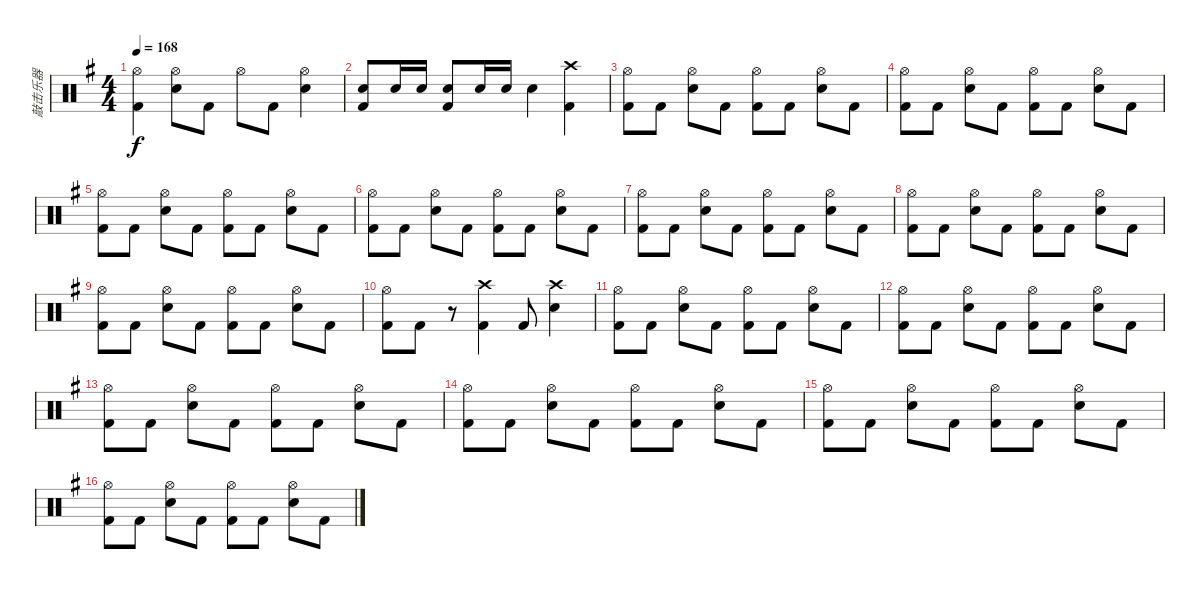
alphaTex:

\track ("敲击乐器" "敲击乐器") {instrument percussion}
\staff {score}
\articulation defaults
\ts (4 4)
\tempo 168
\clef neutral
\ks g
("Hi-Hat (open)" "Kick (hit) 2").4{dy f} ("Hi-Hat (open)" "Snare (hit) 2").8 "Kick (hit) 2".8 "Hi-Hat (open)".8 "Kick (hit) 2".8 ("Hi-Hat (open)" "Snare (hit) 2").4 |
("Snare (hit) 2" "Kick (hit) 2").8 "Snare (hit) 2".16 "Snare (hit) 2".16 ("Snare (hit) 2" "Kick (hit) 2").8 "Snare (hit) 2".16 "Snare (hit) 2".16 "Snare (hit) 2".4 ("Crash high (hit)" "Kick (hit) 2").4 |
("Hi-Hat (open)" "Kick (hit) 2").8 "Kick (hit) 2".8 ("Hi-Hat (open)" "Snare (hit) 2").8 "Kick (hit) 2".8 ("Hi-Hat (open)" "Kick (hit) 2").8 "Kick (hit) 2".8 ("Hi-Hat (open)" "Snare (hit) 2").8 "Kick (hit) 2".8 |
("Hi-Hat (open)" "Kick (hit) 2").8 "Kick (hit) 2".8 ("Hi-Hat (open)" "Snare (hit) 2").8 "Kick (hit) 2".8 ("Hi-Hat (open)" "Kick (hit) 2").8 "Kick (hit) 2".8 ("Hi-Hat (open)" "Snare (hit) 2").8 "Kick (hit) 2".8 |
("Hi-Hat (open)" "Kick (hit) 2").8 "Kick (hit) 2".8 ("Hi-Hat (open)" "Snare (hit) 2").8 "Kick (hit) 2".8 ("Hi-Hat (open)" "Kick (hit) 2").8 "Kick (hit) 2".8 ("Hi-Hat (open)" "Snare (hit) 2").8 "Kick (hit) 2".8 |
("Hi-Hat (open)" "Kick (hit) 2").8 "Kick (hit) 2".8 ("Hi-Hat (open)" "Snare (hit) 2").8 "Kick (hit) 2".8 ("Hi-Hat (open)" "Kick (hit) 2").8 "Kick (hit) 2".8 ("Hi-Hat (open)" "Snare (hit) 2").8 "Kick (hit) 2".8 |
("Hi-Hat (open)" "Kick (hit) 2").8 "Kick (hit) 2".8 ("Hi-Hat (open)" "Snare (hit) 2").8 "Kick (hit) 2".8 ("Hi-Hat (open)" "Kick (hit) 2").8 "Kick (hit) 2".8 ("Hi-Hat (open)" "Snare (hit) 2").8 "Kick (hit) 2".8 |
("Hi-Hat (open)" "Kick (hit) 2").8 "Kick (hit) 2".8 ("Hi-Hat (open)" "Snare (hit) 2").8 "Kick (hit) 2".8 ("Hi-Hat (open)" "Kick (hit) 2").8 "Kick (hit) 2".8 ("Hi-Hat (open)" "Snare (hit) 2").8 "Kick (hit) 2".8 |
("Hi-Hat (open)" "Kick (hit) 2").8 "Kick (hit) 2".8 ("Hi-Hat (open)" "Snare (hit) 2").8 "Kick (hit) 2".8 ("Hi-Hat (open)" "Kick (hit) 2").8 "Kick (hit) 2".8 ("Hi-Hat (open)" "Snare (hit) 2").8 "Kick (hit) 2".8 |
("Hi-Hat (open)" "Kick (hit) 2").8 "Kick (hit) 2".8 r.8 ("Crash high (hit)" "Kick (hit) 2").4 "Kick (hit) 2".8 ("Crash high (hit)" "Snare (hit) 2").4 |
("Hi-Hat (open)" "Kick (hit) 2").8 "Kick (hit) 2".8 ("Hi-Hat (open)" "Snare (hit) 2").8 "Kick (hit) 2".8 ("Hi-Hat (open)" "Kick (hit) 2").8 "Kick (hit) 2".8 ("Hi-Hat (open)" "Snare (hit) 2").8 "Kick (hit) 2".8 |
("Hi-Hat (open)" "Kick (hit) 2").8 "Kick (hit) 2".8 ("Hi-Hat (open)" "Snare (hit) 2").8 "Kick (hit) 2".8 ("Hi-Hat (open)" "Kick (hit) 2").8 "Kick (hit) 2".8 ("Hi-Hat (open)" "Snare (hit) 2").8 "Kick (hit) 2".8 |
("Hi-Hat (open)" "Kick (hit) 2").8 "Kick (hit) 2".8 ("Hi-Hat (open)" "Snare (hit) 2").8 "Kick (hit) 2".8 ("Hi-Hat (open)" "Kick (hit) 2").8 "Kick (hit) 2".8 ("Hi-Hat (open)" "Snare (hit) 2").8 "Kick (hit) 2".8 |
("Hi-Hat (open)" "Kick (hit) 2").8 "Kick (hit) 2".8 ("Hi-Hat (open)" "Snare (hit) 2").8 "Kick (hit) 2".8 ("Hi-Hat (open)" "Kick (hit) 2").8 "Kick (hit) 2".8 ("Hi-Hat (open)" "Snare (hit) 2").8 "Kick (hit) 2".8 |
("Hi-Hat (open)" "Kick (hit) 2").8 "Kick (hit) 2".8 ("Hi-Hat (open)" "Snare (hit) 2").8 "Kick (hit) 2".8 ("Hi-Hat (open)" "Kick (hit) 2").8 "Kick (hit) 2".8 ("Hi-Hat (open)" "Snare (hit) 2").8 "Kick (hit) 2".8 |
("Hi-Hat (open)" "Kick (hit) 2").8 "Kick (hit) 2".8 ("Hi-Hat (open)" "Snare (hit) 2").8 "Kick (hit) 2".8 ("Hi-Hat (open)" "Kick (hit) 2").8 "Kick (hit) 2".8 ("Hi-Hat (open)" "Snare (hit) 2").8 "Kick (hit) 2".8
